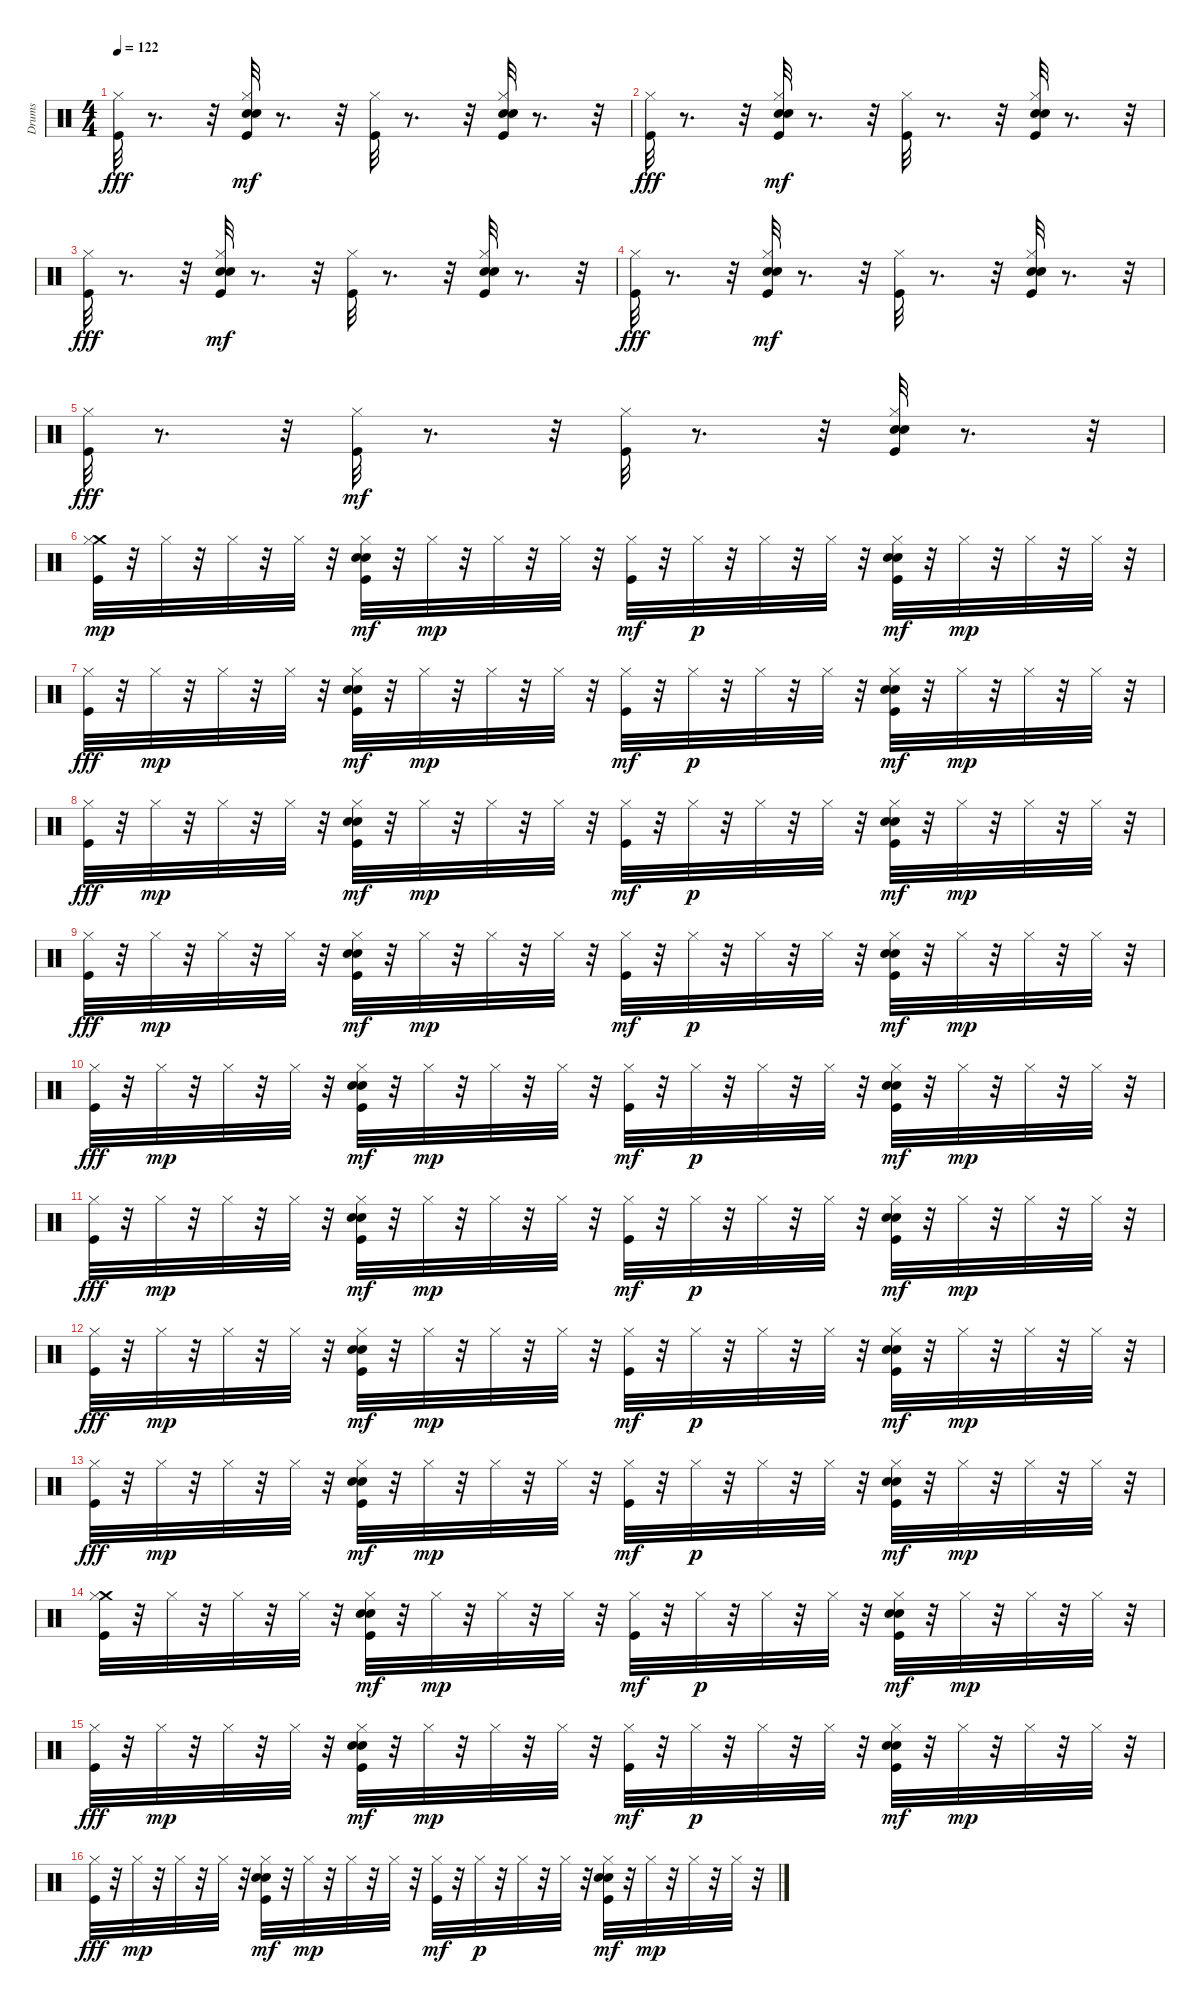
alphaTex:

\track ("Drums" "Drums") {instrument percussion}
\staff {score}
\articulation defaults
\ts (4 4)
\tempo 122
\clef neutral
\ks c
("Kick (hit)" "Hi-Hat (closed)").32{dy fff} r.8{d} r.32 ("Kick (hit)" "Hand Clap (hit)" "Electric Snare (hit)" "Hi-Hat (closed)").32{dy mf} r.8{d} r.32 ("Kick (hit)" "Hi-Hat (closed)").32 r.8{d} r.32 ("Kick (hit)" "Hand Clap (hit)" "Electric Snare (hit)" "Hi-Hat (closed)").32 r.8{d} r.32 |
("Kick (hit)" "Hi-Hat (closed)").32{dy fff} r.8{d} r.32 ("Kick (hit)" "Hand Clap (hit)" "Electric Snare (hit)" "Hi-Hat (closed)").32{dy mf} r.8{d} r.32 ("Kick (hit)" "Hi-Hat (closed)").32 r.8{d} r.32 ("Kick (hit)" "Hand Clap (hit)" "Electric Snare (hit)" "Hi-Hat (closed)").32 r.8{d} r.32 |
("Kick (hit)" "Hi-Hat (closed)").32{dy fff} r.8{d} r.32 ("Kick (hit)" "Hand Clap (hit)" "Electric Snare (hit)" "Hi-Hat (closed)").32{dy mf} r.8{d} r.32 ("Kick (hit)" "Hi-Hat (closed)").32 r.8{d} r.32 ("Kick (hit)" "Hand Clap (hit)" "Electric Snare (hit)" "Hi-Hat (closed)").32 r.8{d} r.32 |
("Kick (hit)" "Hi-Hat (closed)").32{dy fff} r.8{d} r.32 ("Kick (hit)" "Hand Clap (hit)" "Electric Snare (hit)" "Hi-Hat (closed)").32{dy mf} r.8{d} r.32 ("Kick (hit)" "Hi-Hat (closed)").32 r.8{d} r.32 ("Kick (hit)" "Hand Clap (hit)" "Electric Snare (hit)" "Hi-Hat (closed)").32 r.8{d} r.32 |
("Kick (hit)" "Hi-Hat (closed)").32{dy fff} r.8{d} r.32 ("Kick (hit)" "Hi-Hat (closed)").32{dy mf} r.8{d} r.32 ("Kick (hit)" "Hi-Hat (closed)").32 r.8{d} r.32 ("Kick (hit)" "Hand Clap (hit)" "Electric Snare (hit)" "Hi-Hat (closed)").32 r.8{d} r.32 |
("Kick (hit)" "Crash medium (hit)" "Hi-Hat (closed)").32{dy mp} r.32 "Hi-Hat (closed)".32 r.32 "Hi-Hat (closed)".32 r.32 "Hi-Hat (closed)".32 r.32 ("Kick (hit)" "Hand Clap (hit)" "Electric Snare (hit)" "Hi-Hat (closed)").32{dy mf} r.32 "Hi-Hat (closed)".32{dy mp} r.32 "Hi-Hat (closed)".32 r.32 "Hi-Hat (closed)".32 r.32 ("Kick (hit)" "Hi-Hat (closed)").32{dy mf} r.32 "Hi-Hat (closed)".32{dy p} r.32 "Hi-Hat (closed)".32 r.32 "Hi-Hat (closed)".32 r.32 ("Kick (hit)" "Hand Clap (hit)" "Electric Snare (hit)" "Hi-Hat (closed)").32{dy mf} r.32 "Hi-Hat (closed)".32{dy mp} r.32 "Hi-Hat (closed)".32 r.32 "Hi-Hat (closed)".32 r.32 |
("Kick (hit)" "Hi-Hat (closed)").32{dy fff} r.32 "Hi-Hat (closed)".32{dy mp} r.32 "Hi-Hat (closed)".32 r.32 "Hi-Hat (closed)".32 r.32 ("Kick (hit)" "Hand Clap (hit)" "Electric Snare (hit)" "Hi-Hat (closed)").32{dy mf} r.32 "Hi-Hat (closed)".32{dy mp} r.32 "Hi-Hat (closed)".32 r.32 "Hi-Hat (closed)".32 r.32 ("Kick (hit)" "Hi-Hat (closed)").32{dy mf} r.32 "Hi-Hat (closed)".32{dy p} r.32 "Hi-Hat (closed)".32 r.32 "Hi-Hat (closed)".32 r.32 ("Kick (hit)" "Hand Clap (hit)" "Electric Snare (hit)" "Hi-Hat (closed)").32{dy mf} r.32 "Hi-Hat (closed)".32{dy mp} r.32 "Hi-Hat (closed)".32 r.32 "Hi-Hat (closed)".32 r.32 |
("Kick (hit)" "Hi-Hat (closed)").32{dy fff} r.32 "Hi-Hat (closed)".32{dy mp} r.32 "Hi-Hat (closed)".32 r.32 "Hi-Hat (closed)".32 r.32 ("Kick (hit)" "Hand Clap (hit)" "Electric Snare (hit)" "Hi-Hat (closed)").32{dy mf} r.32 "Hi-Hat (closed)".32{dy mp} r.32 "Hi-Hat (closed)".32 r.32 "Hi-Hat (closed)".32 r.32 ("Kick (hit)" "Hi-Hat (closed)").32{dy mf} r.32 "Hi-Hat (closed)".32{dy p} r.32 "Hi-Hat (closed)".32 r.32 "Hi-Hat (closed)".32 r.32 ("Kick (hit)" "Hand Clap (hit)" "Electric Snare (hit)" "Hi-Hat (closed)").32{dy mf} r.32 "Hi-Hat (closed)".32{dy mp} r.32 "Hi-Hat (closed)".32 r.32 "Hi-Hat (closed)".32 r.32 |
("Kick (hit)" "Hi-Hat (closed)").32{dy fff} r.32 "Hi-Hat (closed)".32{dy mp} r.32 "Hi-Hat (closed)".32 r.32 "Hi-Hat (closed)".32 r.32 ("Kick (hit)" "Hand Clap (hit)" "Electric Snare (hit)" "Hi-Hat (closed)").32{dy mf} r.32 "Hi-Hat (closed)".32{dy mp} r.32 "Hi-Hat (closed)".32 r.32 "Hi-Hat (closed)".32 r.32 ("Kick (hit)" "Hi-Hat (closed)").32{dy mf} r.32 "Hi-Hat (closed)".32{dy p} r.32 "Hi-Hat (closed)".32 r.32 "Hi-Hat (closed)".32 r.32 ("Kick (hit)" "Hand Clap (hit)" "Electric Snare (hit)" "Hi-Hat (closed)").32{dy mf} r.32 "Hi-Hat (closed)".32{dy mp} r.32 "Hi-Hat (closed)".32 r.32 "Hi-Hat (closed)".32 r.32 |
("Kick (hit)" "Hi-Hat (closed)").32{dy fff} r.32 "Hi-Hat (closed)".32{dy mp} r.32 "Hi-Hat (closed)".32 r.32 "Hi-Hat (closed)".32 r.32 ("Kick (hit)" "Hand Clap (hit)" "Electric Snare (hit)" "Hi-Hat (closed)").32{dy mf} r.32 "Hi-Hat (closed)".32{dy mp} r.32 "Hi-Hat (closed)".32 r.32 "Hi-Hat (closed)".32 r.32 ("Kick (hit)" "Hi-Hat (closed)").32{dy mf} r.32 "Hi-Hat (closed)".32{dy p} r.32 "Hi-Hat (closed)".32 r.32 "Hi-Hat (closed)".32 r.32 ("Kick (hit)" "Hand Clap (hit)" "Electric Snare (hit)" "Hi-Hat (closed)").32{dy mf} r.32 "Hi-Hat (closed)".32{dy mp} r.32 "Hi-Hat (closed)".32 r.32 "Hi-Hat (closed)".32 r.32 |
("Kick (hit)" "Hi-Hat (closed)").32{dy fff} r.32 "Hi-Hat (closed)".32{dy mp} r.32 "Hi-Hat (closed)".32 r.32 "Hi-Hat (closed)".32 r.32 ("Kick (hit)" "Hand Clap (hit)" "Electric Snare (hit)" "Hi-Hat (closed)").32{dy mf} r.32 "Hi-Hat (closed)".32{dy mp} r.32 "Hi-Hat (closed)".32 r.32 "Hi-Hat (closed)".32 r.32 ("Kick (hit)" "Hi-Hat (closed)").32{dy mf} r.32 "Hi-Hat (closed)".32{dy p} r.32 "Hi-Hat (closed)".32 r.32 "Hi-Hat (closed)".32 r.32 ("Kick (hit)" "Hand Clap (hit)" "Electric Snare (hit)" "Hi-Hat (closed)").32{dy mf} r.32 "Hi-Hat (closed)".32{dy mp} r.32 "Hi-Hat (closed)".32 r.32 "Hi-Hat (closed)".32 r.32 |
("Kick (hit)" "Hi-Hat (closed)").32{dy fff} r.32 "Hi-Hat (closed)".32{dy mp} r.32 "Hi-Hat (closed)".32 r.32 "Hi-Hat (closed)".32 r.32 ("Kick (hit)" "Hand Clap (hit)" "Electric Snare (hit)" "Hi-Hat (closed)").32{dy mf} r.32 "Hi-Hat (closed)".32{dy mp} r.32 "Hi-Hat (closed)".32 r.32 "Hi-Hat (closed)".32 r.32 ("Kick (hit)" "Hi-Hat (closed)").32{dy mf} r.32 "Hi-Hat (closed)".32{dy p} r.32 "Hi-Hat (closed)".32 r.32 "Hi-Hat (closed)".32 r.32 ("Kick (hit)" "Hand Clap (hit)" "Electric Snare (hit)" "Hi-Hat (closed)").32{dy mf} r.32 "Hi-Hat (closed)".32{dy mp} r.32 "Hi-Hat (closed)".32 r.32 "Hi-Hat (closed)".32 r.32 |
("Kick (hit)" "Hi-Hat (closed)").32{dy fff} r.32 "Hi-Hat (closed)".32{dy mp} r.32 "Hi-Hat (closed)".32 r.32 "Hi-Hat (closed)".32 r.32 ("Kick (hit)" "Hand Clap (hit)" "Electric Snare (hit)" "Hi-Hat (closed)").32{dy mf} r.32 "Hi-Hat (closed)".32{dy mp} r.32 "Hi-Hat (closed)".32 r.32 "Hi-Hat (closed)".32 r.32 ("Kick (hit)" "Hi-Hat (closed)").32{dy mf} r.32 "Hi-Hat (closed)".32{dy p} r.32 "Hi-Hat (closed)".32 r.32 "Hi-Hat (closed)".32 r.32 ("Kick (hit)" "Hand Clap (hit)" "Electric Snare (hit)" "Hi-Hat (closed)").32{dy mf} r.32 "Hi-Hat (closed)".32{dy mp} r.32 "Hi-Hat (closed)".32 r.32 "Hi-Hat (closed)".32 r.32 |
("Kick (hit)" "Crash medium (hit)" "Hi-Hat (closed)").32 r.32 "Hi-Hat (closed)".32 r.32 "Hi-Hat (closed)".32 r.32 "Hi-Hat (closed)".32 r.32 ("Kick (hit)" "Hand Clap (hit)" "Electric Snare (hit)" "Hi-Hat (closed)").32{dy mf} r.32 "Hi-Hat (closed)".32{dy mp} r.32 "Hi-Hat (closed)".32 r.32 "Hi-Hat (closed)".32 r.32 ("Kick (hit)" "Hi-Hat (closed)").32{dy mf} r.32 "Hi-Hat (closed)".32{dy p} r.32 "Hi-Hat (closed)".32 r.32 "Hi-Hat (closed)".32 r.32 ("Kick (hit)" "Hand Clap (hit)" "Electric Snare (hit)" "Hi-Hat (closed)").32{dy mf} r.32 "Hi-Hat (closed)".32{dy mp} r.32 "Hi-Hat (closed)".32 r.32 "Hi-Hat (closed)".32 r.32 |
("Kick (hit)" "Hi-Hat (closed)").32{dy fff} r.32 "Hi-Hat (closed)".32{dy mp} r.32 "Hi-Hat (closed)".32 r.32 "Hi-Hat (closed)".32 r.32 ("Kick (hit)" "Hand Clap (hit)" "Electric Snare (hit)" "Hi-Hat (closed)").32{dy mf} r.32 "Hi-Hat (closed)".32{dy mp} r.32 "Hi-Hat (closed)".32 r.32 "Hi-Hat (closed)".32 r.32 ("Kick (hit)" "Hi-Hat (closed)").32{dy mf} r.32 "Hi-Hat (closed)".32{dy p} r.32 "Hi-Hat (closed)".32 r.32 "Hi-Hat (closed)".32 r.32 ("Kick (hit)" "Hand Clap (hit)" "Electric Snare (hit)" "Hi-Hat (closed)").32{dy mf} r.32 "Hi-Hat (closed)".32{dy mp} r.32 "Hi-Hat (closed)".32 r.32 "Hi-Hat (closed)".32 r.32 |
("Kick (hit)" "Hi-Hat (closed)").32{dy fff} r.32 "Hi-Hat (closed)".32{dy mp} r.32 "Hi-Hat (closed)".32 r.32 "Hi-Hat (closed)".32 r.32 ("Kick (hit)" "Hand Clap (hit)" "Electric Snare (hit)" "Hi-Hat (closed)").32{dy mf} r.32 "Hi-Hat (closed)".32{dy mp} r.32 "Hi-Hat (closed)".32 r.32 "Hi-Hat (closed)".32 r.32 ("Kick (hit)" "Hi-Hat (closed)").32{dy mf} r.32 "Hi-Hat (closed)".32{dy p} r.32 "Hi-Hat (closed)".32 r.32 "Hi-Hat (closed)".32 r.32 ("Kick (hit)" "Hand Clap (hit)" "Electric Snare (hit)" "Hi-Hat (closed)").32{dy mf} r.32 "Hi-Hat (closed)".32{dy mp} r.32 "Hi-Hat (closed)".32 r.32 "Hi-Hat (closed)".32 r.32
